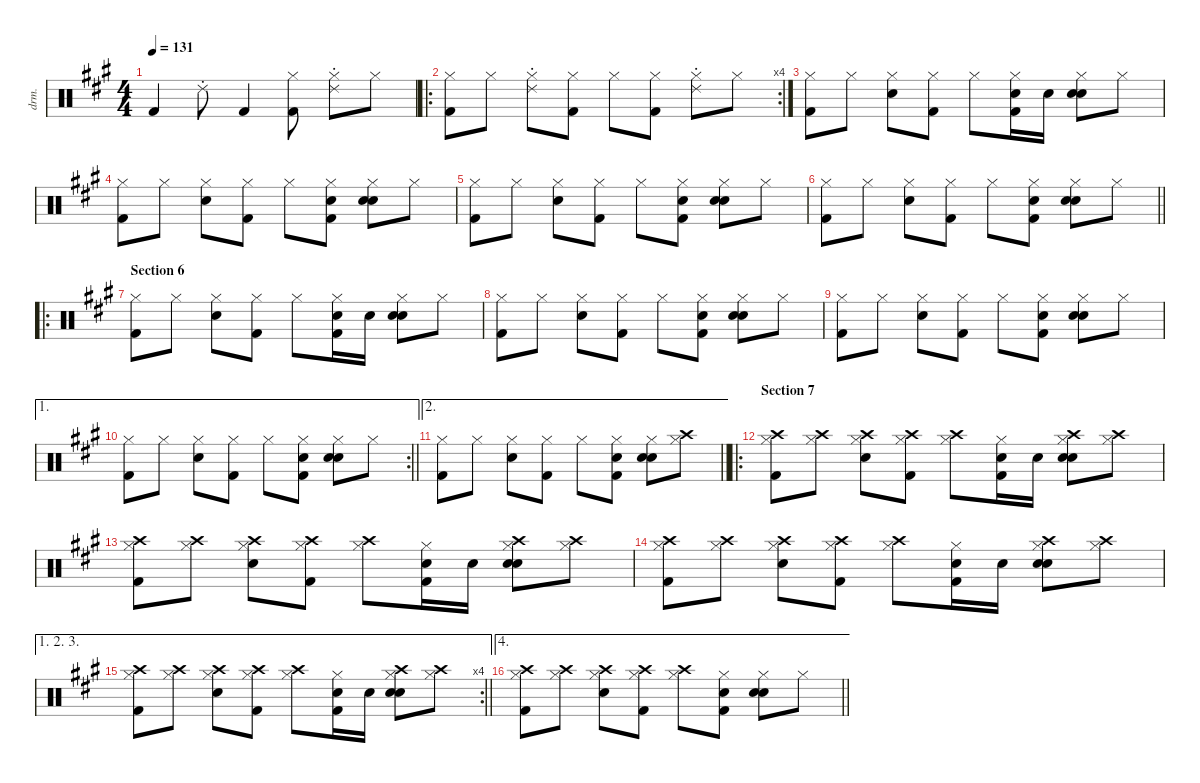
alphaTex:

\defaultSystemsLayout 4
\hideDynamics
\bracketExtendMode nobrackets
\otherSystemsTrackNameOrientation horizontal
\track ("Percussion" "drm.") {defaultSystemsLayout 4 instrument percussion}
\staff {score}
\articulation defaults
\ts (4 4)
\tempo 131
\clef neutral
\ks f#minor "Kick (hit) 2"{acc forcenatural}.4{dy f beam Up} "Ride (choke) 2"{acc forcenatural}.8{beam Down} "Kick (hit) 2"{acc forcenatural}.4{beam Up}
("Hi-Hat (closed)"{acc forcenatural} "Kick (hit) 2"{acc forcenatural}).8{beam Down} ("Hi-Hat (closed)"{acc forcenatural} "Ride (choke) 2"{acc forcenatural}).8{beam Down} "Hi-Hat (closed)"{acc forcenatural}.8{beam Down} |
\ro
\rc 4
("Hi-Hat (closed)"{acc forcenatural} "Kick (hit) 2"{acc forcenatural}).8{beam Down} "Hi-Hat (closed)"{acc forcenatural}.8{beam Down} ("Hi-Hat (closed)"{acc forcenatural} "Ride (choke) 2"{acc forcenatural}).8{beam Down} ("Hi-Hat (closed)"{acc forcenatural} "Kick (hit) 2"{acc forcenatural}).8{beam Down} "Hi-Hat (closed)"{acc forcenatural}.8{beam Down} ("Hi-Hat (closed)"{acc forcenatural} "Kick (hit) 2"{acc forcenatural}).8{beam Down} ("Hi-Hat (closed)"{acc forcenatural} "Ride (choke) 2"{acc forcenatural}).8{beam Down} "Hi-Hat (closed)"{acc forcenatural}.8{beam Down} |
("Hi-Hat (closed)"{acc forcenatural} "Kick (hit) 2"{acc forcenatural}).8{beam Down} "Hi-Hat (closed)"{acc forcenatural}.8{beam Down} ("Hi-Hat (closed)"{acc forcenatural} "Snare (hit) 2"{acc forcenatural}).8{beam Down} ("Hi-Hat (closed)"{acc forcenatural} "Kick (hit) 2"{acc forcenatural}).8{beam Down} "Hi-Hat (closed)"{acc forcenatural}.8{beam Down} ("Hi-Hat (closed)"{acc forcenatural} "Hand Clap (hit)"{acc forcenatural} "Kick (hit) 2"{acc forcenatural}).16{beam Down} "Hand Clap (hit)"{acc forcenatural}.16{beam Down} ("Hi-Hat (closed)"{acc forcenatural} "Hand Clap (hit)"{acc forcenatural} "Snare (hit) 2"{acc forcenatural}).8{beam Down} "Hi-Hat (closed)"{acc forcenatural}.8{beam Down} |
("Hi-Hat (closed)"{acc forcenatural} "Kick (hit) 2"{acc forcenatural}).8{beam Down} "Hi-Hat (closed)"{acc forcenatural}.8{beam Down} ("Hi-Hat (closed)"{acc forcenatural} "Snare (hit) 2"{acc forcenatural}).8{beam Down} ("Hi-Hat (closed)"{acc forcenatural} "Kick (hit) 2"{acc forcenatural}).8{beam Down} "Hi-Hat (closed)"{acc forcenatural}.8{beam Down} ("Hi-Hat (closed)"{acc forcenatural} "Hand Clap (hit)"{acc forcenatural} "Kick (hit) 2"{acc forcenatural}).8{beam Down} ("Hi-Hat (closed)"{acc forcenatural} "Hand Clap (hit)"{acc forcenatural} "Snare (hit) 2"{acc forcenatural}).8{beam Down} "Hi-Hat (closed)"{acc forcenatural}.8{beam Down} |
("Hi-Hat (closed)"{acc forcenatural} "Kick (hit) 2"{acc forcenatural}).8{beam Down} "Hi-Hat (closed)"{acc forcenatural}.8{beam Down} ("Hi-Hat (closed)"{acc forcenatural} "Snare (hit) 2"{acc forcenatural}).8{beam Down} ("Hi-Hat (closed)"{acc forcenatural} "Kick (hit) 2"{acc forcenatural}).8{beam Down} "Hi-Hat (closed)"{acc forcenatural}.8{beam Down} ("Hi-Hat (closed)"{acc forcenatural} "Hand Clap (hit)"{acc forcenatural} "Kick (hit) 2"{acc forcenatural}).8{beam Down} ("Hi-Hat (closed)"{acc forcenatural} "Hand Clap (hit)"{acc forcenatural} "Snare (hit) 2"{acc forcenatural}).8{beam Down} "Hi-Hat (closed)"{acc forcenatural}.8{beam Down} |
\barLineRight lightlight
("Hi-Hat (closed)"{acc forcenatural} "Kick (hit) 2"{acc forcenatural}).8{beam Down} "Hi-Hat (closed)"{acc forcenatural}.8{beam Down} ("Hi-Hat (closed)"{acc forcenatural} "Snare (hit) 2"{acc forcenatural}).8{beam Down} ("Hi-Hat (closed)"{acc forcenatural} "Kick (hit) 2"{acc forcenatural}).8{beam Down} "Hi-Hat (closed)"{acc forcenatural}.8{beam Down} ("Hi-Hat (closed)"{acc forcenatural} "Hand Clap (hit)"{acc forcenatural} "Kick (hit) 2"{acc forcenatural}).8{beam Down} ("Hi-Hat (closed)"{acc forcenatural} "Hand Clap (hit)"{acc forcenatural} "Snare (hit) 2"{acc forcenatural}).8{beam Down} "Hi-Hat (closed)"{acc forcenatural}.8{beam Down} |
\ro
\section ("" "Section 6")
("Hi-Hat (closed)"{acc forcenatural} "Kick (hit) 2"{acc forcenatural}).8{beam Down} "Hi-Hat (closed)"{acc forcenatural}.8{beam Down} ("Hi-Hat (closed)"{acc forcenatural} "Snare (hit) 2"{acc forcenatural}).8{beam Down} ("Hi-Hat (closed)"{acc forcenatural} "Kick (hit) 2"{acc forcenatural}).8{beam Down} "Hi-Hat (closed)"{acc forcenatural}.8{beam Down} ("Hi-Hat (closed)"{acc forcenatural} "Hand Clap (hit)"{acc forcenatural} "Kick (hit) 2"{acc forcenatural}).16{beam Down} "Hand Clap (hit)"{acc forcenatural}.16{beam Down} ("Hi-Hat (closed)"{acc forcenatural} "Hand Clap (hit)"{acc forcenatural} "Snare (hit) 2"{acc forcenatural}).8{beam Down} "Hi-Hat (closed)"{acc forcenatural}.8{beam Down} |
("Hi-Hat (closed)"{acc forcenatural} "Kick (hit) 2"{acc forcenatural}).8{beam Down} "Hi-Hat (closed)"{acc forcenatural}.8{beam Down} ("Hi-Hat (closed)"{acc forcenatural} "Snare (hit) 2"{acc forcenatural}).8{beam Down} ("Hi-Hat (closed)"{acc forcenatural} "Kick (hit) 2"{acc forcenatural}).8{beam Down} "Hi-Hat (closed)"{acc forcenatural}.8{beam Down} ("Hi-Hat (closed)"{acc forcenatural} "Hand Clap (hit)"{acc forcenatural} "Kick (hit) 2"{acc forcenatural}).8{beam Down} ("Hi-Hat (closed)"{acc forcenatural} "Hand Clap (hit)"{acc forcenatural} "Snare (hit) 2"{acc forcenatural}).8{beam Down} "Hi-Hat (closed)"{acc forcenatural}.8{beam Down} |
("Hi-Hat (closed)"{acc forcenatural} "Kick (hit) 2"{acc forcenatural}).8{beam Down} "Hi-Hat (closed)"{acc forcenatural}.8{beam Down} ("Hi-Hat (closed)"{acc forcenatural} "Snare (hit) 2"{acc forcenatural}).8{beam Down} ("Hi-Hat (closed)"{acc forcenatural} "Kick (hit) 2"{acc forcenatural}).8{beam Down} "Hi-Hat (closed)"{acc forcenatural}.8{beam Down} ("Hi-Hat (closed)"{acc forcenatural} "Hand Clap (hit)"{acc forcenatural} "Kick (hit) 2"{acc forcenatural}).8{beam Down} ("Hi-Hat (closed)"{acc forcenatural} "Hand Clap (hit)"{acc forcenatural} "Snare (hit) 2"{acc forcenatural}).8{beam Down} "Hi-Hat (closed)"{acc forcenatural}.8{beam Down} |
\ae 1
\rc 2
\barLineRight lightlight
("Hi-Hat (closed)"{acc forcenatural} "Kick (hit) 2"{acc forcenatural}).8{beam Down} "Hi-Hat (closed)"{acc forcenatural}.8{beam Down} ("Hi-Hat (closed)"{acc forcenatural} "Snare (hit) 2"{acc forcenatural}).8{beam Down} ("Hi-Hat (closed)"{acc forcenatural} "Kick (hit) 2"{acc forcenatural}).8{beam Down} "Hi-Hat (closed)"{acc forcenatural}.8{beam Down} ("Hi-Hat (closed)"{acc forcenatural} "Hand Clap (hit)"{acc forcenatural} "Kick (hit) 2"{acc forcenatural}).8{beam Down} ("Hi-Hat (closed)"{acc forcenatural} "Hand Clap (hit)"{acc forcenatural} "Snare (hit) 2"{acc forcenatural}).8{beam Down} "Hi-Hat (closed)"{acc forcenatural}.8{beam Down} |
\ae 2
\barLineRight lightlight
("Hi-Hat (closed)"{acc forcenatural} "Kick (hit) 2"{acc forcenatural}).8{beam Down} "Hi-Hat (closed)"{acc forcenatural}.8{beam Down} ("Hi-Hat (closed)"{acc forcenatural} "Snare (hit) 2"{acc forcenatural}).8{beam Down} ("Hi-Hat (closed)"{acc forcenatural} "Kick (hit) 2"{acc forcenatural}).8{beam Down} "Hi-Hat (closed)"{acc forcenatural}.8{beam Down} ("Hi-Hat (closed)"{acc forcenatural} "Hand Clap (hit)"{acc forcenatural} "Kick (hit) 2"{acc forcenatural}).8{beam Down} ("Hi-Hat (closed)"{acc forcenatural} "Hand Clap (hit)"{acc forcenatural} "Snare (hit) 2"{acc forcenatural}).8{beam Down} ("Crash high (hit)"{acc forcenatural} "Hi-Hat (closed)"{acc forcenatural}).8{beam Down} |
\ro
\section ("" "Section 7")
("Crash high (hit)"{acc forcenatural} "Hi-Hat (closed)"{acc forcenatural} "Kick (hit) 2"{acc forcenatural}).8{beam Down} ("Crash high (hit)"{acc forcenatural} "Hi-Hat (closed)"{acc forcenatural}).8{beam Down} ("Crash high (hit)"{acc forcenatural} "Hi-Hat (closed)"{acc forcenatural} "Snare (hit) 2"{acc forcenatural}).8{beam Down} ("Crash high (hit)"{acc forcenatural} "Hi-Hat (closed)"{acc forcenatural} "Kick (hit) 2"{acc forcenatural}).8{beam Down} ("Crash high (hit)"{acc forcenatural} "Hi-Hat (closed)"{acc forcenatural}).8{beam Down} ("Hi-Hat (closed)"{acc forcenatural} "Hand Clap (hit)"{acc forcenatural} "Kick (hit) 2"{acc forcenatural}).16{beam Down} "Hand Clap (hit)"{acc forcenatural}.16{beam Down} ("Crash high (hit)"{acc forcenatural} "Hi-Hat (closed)"{acc forcenatural} "Hand Clap (hit)"{acc forcenatural} "Snare (hit) 2"{acc forcenatural}).8{beam Down} ("Crash high (hit)"{acc forcenatural} "Hi-Hat (closed)"{acc forcenatural}).8{beam Down} |
("Crash high (hit)"{acc forcenatural} "Hi-Hat (closed)"{acc forcenatural} "Kick (hit) 2"{acc forcenatural}).8{beam Down} ("Crash high (hit)"{acc forcenatural} "Hi-Hat (closed)"{acc forcenatural}).8{beam Down} ("Crash high (hit)"{acc forcenatural} "Hi-Hat (closed)"{acc forcenatural} "Snare (hit) 2"{acc forcenatural}).8{beam Down} ("Crash high (hit)"{acc forcenatural} "Hi-Hat (closed)"{acc forcenatural} "Kick (hit) 2"{acc forcenatural}).8{beam Down} ("Crash high (hit)"{acc forcenatural} "Hi-Hat (closed)"{acc forcenatural}).8{beam Down} ("Hi-Hat (closed)"{acc forcenatural} "Hand Clap (hit)"{acc forcenatural} "Kick (hit) 2"{acc forcenatural}).16{beam Down} "Hand Clap (hit)"{acc forcenatural}.16{beam Down} ("Crash high (hit)"{acc forcenatural} "Hi-Hat (closed)"{acc forcenatural} "Hand Clap (hit)"{acc forcenatural} "Snare (hit) 2"{acc forcenatural}).8{beam Down} ("Crash high (hit)"{acc forcenatural} "Hi-Hat (closed)"{acc forcenatural}).8{beam Down} |
("Crash high (hit)"{acc forcenatural} "Hi-Hat (closed)"{acc forcenatural} "Kick (hit) 2"{acc forcenatural}).8{beam Down} ("Crash high (hit)"{acc forcenatural} "Hi-Hat (closed)"{acc forcenatural}).8{beam Down} ("Crash high (hit)"{acc forcenatural} "Hi-Hat (closed)"{acc forcenatural} "Snare (hit) 2"{acc forcenatural}).8{beam Down} ("Crash high (hit)"{acc forcenatural} "Hi-Hat (closed)"{acc forcenatural} "Kick (hit) 2"{acc forcenatural}).8{beam Down} ("Crash high (hit)"{acc forcenatural} "Hi-Hat (closed)"{acc forcenatural}).8{beam Down} ("Hi-Hat (closed)"{acc forcenatural} "Hand Clap (hit)"{acc forcenatural} "Kick (hit) 2"{acc forcenatural}).16{beam Down} "Hand Clap (hit)"{acc forcenatural}.16{beam Down} ("Crash high (hit)"{acc forcenatural} "Hi-Hat (closed)"{acc forcenatural} "Hand Clap (hit)"{acc forcenatural} "Snare (hit) 2"{acc forcenatural}).8{beam Down} ("Crash high (hit)"{acc forcenatural} "Hi-Hat (closed)"{acc forcenatural}).8{beam Down} |
\ae (1 2 3)
\rc 4
\barLineRight lightlight
("Crash high (hit)"{acc forcenatural} "Hi-Hat (closed)"{acc forcenatural} "Kick (hit) 2"{acc forcenatural}).8{beam Down} ("Crash high (hit)"{acc forcenatural} "Hi-Hat (closed)"{acc forcenatural}).8{beam Down} ("Crash high (hit)"{acc forcenatural} "Hi-Hat (closed)"{acc forcenatural} "Snare (hit) 2"{acc forcenatural}).8{beam Down} ("Crash high (hit)"{acc forcenatural} "Hi-Hat (closed)"{acc forcenatural} "Kick (hit) 2"{acc forcenatural}).8{beam Down} ("Crash high (hit)"{acc forcenatural} "Hi-Hat (closed)"{acc forcenatural}).8{beam Down} ("Hi-Hat (closed)"{acc forcenatural} "Hand Clap (hit)"{acc forcenatural} "Kick (hit) 2"{acc forcenatural}).16{beam Down} "Hand Clap (hit)"{acc forcenatural}.16{beam Down} ("Crash high (hit)"{acc forcenatural} "Hi-Hat (closed)"{acc forcenatural} "Hand Clap (hit)"{acc forcenatural} "Snare (hit) 2"{acc forcenatural}).8{beam Down} ("Crash high (hit)"{acc forcenatural} "Hi-Hat (closed)"{acc forcenatural}).8{beam Down} |
\ae 4
\barLineRight lightlight
("Crash high (hit)"{acc forcenatural} "Hi-Hat (closed)"{acc forcenatural} "Kick (hit) 2"{acc forcenatural}).8{beam Down} ("Crash high (hit)"{acc forcenatural} "Hi-Hat (closed)"{acc forcenatural}).8{beam Down} ("Crash high (hit)"{acc forcenatural} "Hi-Hat (closed)"{acc forcenatural} "Snare (hit) 2"{acc forcenatural}).8{beam Down} ("Crash high (hit)"{acc forcenatural} "Hi-Hat (closed)"{acc forcenatural} "Kick (hit) 2"{acc forcenatural}).8{beam Down} ("Crash high (hit)"{acc forcenatural} "Hi-Hat (closed)"{acc forcenatural}).8{beam Down} ("Hi-Hat (closed)"{acc forcenatural} "Hand Clap (hit)"{acc forcenatural} "Kick (hit) 2"{acc forcenatural}).8{beam Down} ("Hi-Hat (closed)"{acc forcenatural} "Hand Clap (hit)"{acc forcenatural} "Snare (hit) 2"{acc forcenatural}).8{beam Down} "Hi-Hat (closed)"{acc forcenatural}.8{beam Down}
